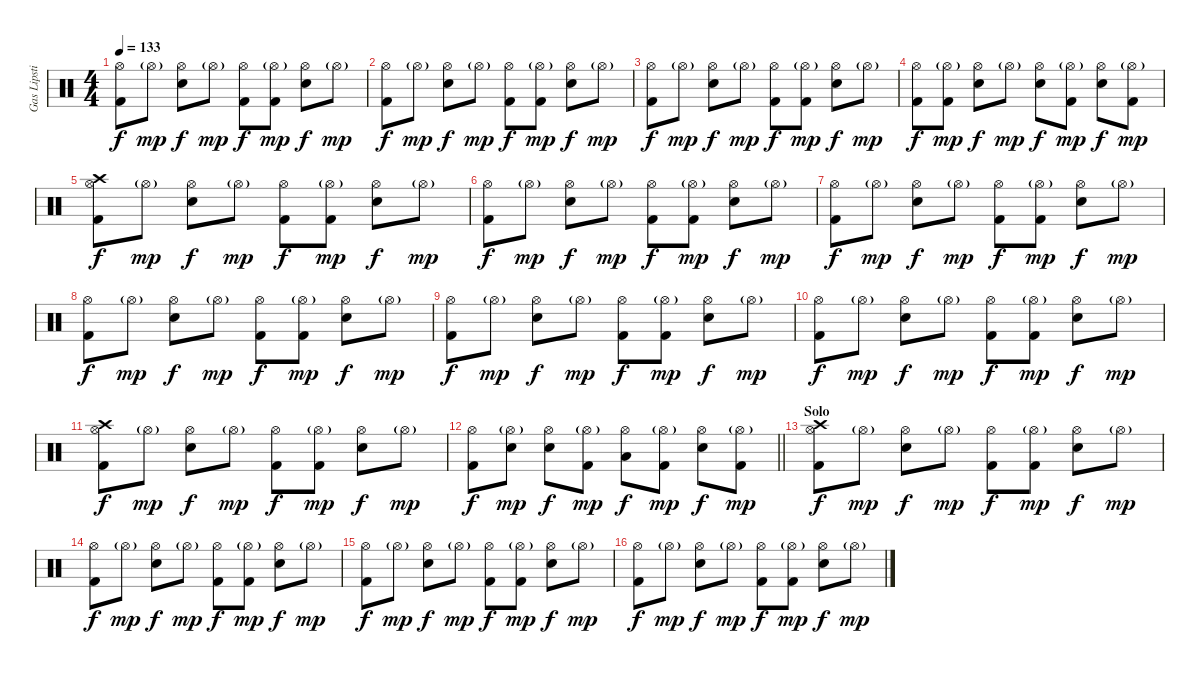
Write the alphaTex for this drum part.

\track ("Gas Lipstick (Drums)" "Gas Lipsti") {instrument percussion}
\staff {score}
\articulation defaults
\ts (4 4)
\tempo 133
\clef neutral
\ks c
("Hi-Hat (open)" "Kick (hit) 2").8{dy f} "Hi-Hat (open)"{g}.8{dy mp} ("Hi-Hat (open)" "Snare (hit) 2").8{dy f} "Hi-Hat (open)"{g}.8{dy mp} ("Hi-Hat (open)" "Kick (hit) 2").8{dy f} ("Hi-Hat (open)"{g} "Kick (hit) 2").8{dy mp} ("Hi-Hat (open)" "Snare (hit) 2").8{dy f} "Hi-Hat (open)"{g}.8{dy mp} |
("Hi-Hat (open)" "Kick (hit) 2").8{dy f} "Hi-Hat (open)"{g}.8{dy mp} ("Hi-Hat (open)" "Snare (hit) 2").8{dy f} "Hi-Hat (open)"{g}.8{dy mp} ("Hi-Hat (open)" "Kick (hit) 2").8{dy f} ("Hi-Hat (open)"{g} "Kick (hit) 2").8{dy mp} ("Hi-Hat (open)" "Snare (hit) 2").8{dy f} "Hi-Hat (open)"{g}.8{dy mp} |
("Hi-Hat (open)" "Kick (hit) 2").8{dy f} "Hi-Hat (open)"{g}.8{dy mp} ("Hi-Hat (open)" "Snare (hit) 2").8{dy f} "Hi-Hat (open)"{g}.8{dy mp} ("Hi-Hat (open)" "Kick (hit) 2").8{dy f} ("Hi-Hat (open)"{g} "Kick (hit) 2").8{dy mp} ("Hi-Hat (open)" "Snare (hit) 2").8{dy f} "Hi-Hat (open)"{g}.8{dy mp} |
("Hi-Hat (open)" "Kick (hit) 2").8{dy f} ("Hi-Hat (open)"{g} "Kick (hit) 2").8{dy mp} ("Hi-Hat (open)" "Snare (hit) 2").8{dy f} "Hi-Hat (open)"{g}.8{dy mp} ("Hi-Hat (open)" "Snare (hit) 2").8{dy f} ("Hi-Hat (open)"{g} "Kick (hit) 2").8{dy mp} ("Hi-Hat (open)" "Snare (hit) 2").8{dy f} ("Hi-Hat (open)"{g} "Kick (hit) 2").8{dy mp} |
("Crash high (hit)" "Hi-Hat (open)" "Kick (hit) 2").8{dy f} "Hi-Hat (open)"{g}.8{dy mp} ("Hi-Hat (open)" "Snare (hit) 2").8{dy f} "Hi-Hat (open)"{g}.8{dy mp} ("Hi-Hat (open)" "Kick (hit) 2").8{dy f} ("Hi-Hat (open)"{g} "Kick (hit) 2").8{dy mp} ("Hi-Hat (open)" "Snare (hit) 2").8{dy f} "Hi-Hat (open)"{g}.8{dy mp} |
("Hi-Hat (open)" "Kick (hit) 2").8{dy f} "Hi-Hat (open)"{g}.8{dy mp} ("Hi-Hat (open)" "Snare (hit) 2").8{dy f} "Hi-Hat (open)"{g}.8{dy mp} ("Hi-Hat (open)" "Kick (hit) 2").8{dy f} ("Hi-Hat (open)"{g} "Kick (hit) 2").8{dy mp} ("Hi-Hat (open)" "Snare (hit) 2").8{dy f} "Hi-Hat (open)"{g}.8{dy mp} |
("Hi-Hat (open)" "Kick (hit) 2").8{dy f} "Hi-Hat (open)"{g}.8{dy mp} ("Hi-Hat (open)" "Snare (hit) 2").8{dy f} "Hi-Hat (open)"{g}.8{dy mp} ("Hi-Hat (open)" "Kick (hit) 2").8{dy f} ("Hi-Hat (open)"{g} "Kick (hit) 2").8{dy mp} ("Hi-Hat (open)" "Snare (hit) 2").8{dy f} "Hi-Hat (open)"{g}.8{dy mp} |
("Hi-Hat (open)" "Kick (hit) 2").8{dy f} "Hi-Hat (open)"{g}.8{dy mp} ("Hi-Hat (open)" "Snare (hit) 2").8{dy f} "Hi-Hat (open)"{g}.8{dy mp} ("Hi-Hat (open)" "Kick (hit) 2").8{dy f} ("Hi-Hat (open)"{g} "Kick (hit) 2").8{dy mp} ("Hi-Hat (open)" "Snare (hit) 2").8{dy f} "Hi-Hat (open)"{g}.8{dy mp} |
("Hi-Hat (open)" "Kick (hit) 2").8{dy f} "Hi-Hat (open)"{g}.8{dy mp} ("Hi-Hat (open)" "Snare (hit) 2").8{dy f} "Hi-Hat (open)"{g}.8{dy mp} ("Hi-Hat (open)" "Kick (hit) 2").8{dy f} ("Hi-Hat (open)"{g} "Kick (hit) 2").8{dy mp} ("Hi-Hat (open)" "Snare (hit) 2").8{dy f} "Hi-Hat (open)"{g}.8{dy mp} |
("Hi-Hat (open)" "Kick (hit) 2").8{dy f} "Hi-Hat (open)"{g}.8{dy mp} ("Hi-Hat (open)" "Snare (hit) 2").8{dy f} "Hi-Hat (open)"{g}.8{dy mp} ("Hi-Hat (open)" "Kick (hit) 2").8{dy f} ("Hi-Hat (open)"{g} "Kick (hit) 2").8{dy mp} ("Hi-Hat (open)" "Snare (hit) 2").8{dy f} "Hi-Hat (open)"{g}.8{dy mp} |
("Crash high (hit)" "Hi-Hat (open)" "Kick (hit) 2").8{dy f} "Hi-Hat (open)"{g}.8{dy mp} ("Hi-Hat (open)" "Snare (hit) 2").8{dy f} "Hi-Hat (open)"{g}.8{dy mp} ("Hi-Hat (open)" "Kick (hit) 2").8{dy f} ("Hi-Hat (open)"{g} "Kick (hit) 2").8{dy mp} ("Hi-Hat (open)" "Snare (hit) 2").8{dy f} "Hi-Hat (open)"{g}.8{dy mp} |
\barLineRight lightlight
("Hi-Hat (open)" "Kick (hit) 2").8{dy f} ("Hi-Hat (open)"{g} "Snare (hit) 2").8{dy mp} ("Hi-Hat (open)" "Snare (hit) 2").8{dy f} ("Hi-Hat (open)"{g} "Kick (hit) 2").8{dy mp} ("Hi-Hat (open)" "Low Tom (hit)").8{dy f} ("Hi-Hat (open)"{g} "Kick (hit) 2").8{dy mp} ("Hi-Hat (open)" "Snare (hit) 2").8{dy f} ("Hi-Hat (open)"{g} "Kick (hit) 2").8{dy mp} |
\section ("" "Solo")
("Crash high (hit)" "Hi-Hat (open)" "Kick (hit) 2").8{dy f} "Hi-Hat (open)"{g}.8{dy mp} ("Hi-Hat (open)" "Snare (hit) 2").8{dy f} "Hi-Hat (open)"{g}.8{dy mp} ("Hi-Hat (open)" "Kick (hit) 2").8{dy f} ("Hi-Hat (open)"{g} "Kick (hit) 2").8{dy mp} ("Hi-Hat (open)" "Snare (hit) 2").8{dy f} "Hi-Hat (open)"{g}.8{dy mp} |
("Hi-Hat (open)" "Kick (hit) 2").8{dy f} "Hi-Hat (open)"{g}.8{dy mp} ("Hi-Hat (open)" "Snare (hit) 2").8{dy f} "Hi-Hat (open)"{g}.8{dy mp} ("Hi-Hat (open)" "Kick (hit) 2").8{dy f} ("Hi-Hat (open)"{g} "Kick (hit) 2").8{dy mp} ("Hi-Hat (open)" "Snare (hit) 2").8{dy f} "Hi-Hat (open)"{g}.8{dy mp} |
("Hi-Hat (open)" "Kick (hit) 2").8{dy f} "Hi-Hat (open)"{g}.8{dy mp} ("Hi-Hat (open)" "Snare (hit) 2").8{dy f} "Hi-Hat (open)"{g}.8{dy mp} ("Hi-Hat (open)" "Kick (hit) 2").8{dy f} ("Hi-Hat (open)"{g} "Kick (hit) 2").8{dy mp} ("Hi-Hat (open)" "Snare (hit) 2").8{dy f} "Hi-Hat (open)"{g}.8{dy mp} |
("Hi-Hat (open)" "Kick (hit) 2").8{dy f} "Hi-Hat (open)"{g}.8{dy mp} ("Hi-Hat (open)" "Snare (hit) 2").8{dy f} "Hi-Hat (open)"{g}.8{dy mp} ("Hi-Hat (open)" "Kick (hit) 2").8{dy f} ("Hi-Hat (open)"{g} "Kick (hit) 2").8{dy mp} ("Hi-Hat (open)" "Snare (hit) 2").8{dy f} "Hi-Hat (open)"{g}.8{dy mp}
